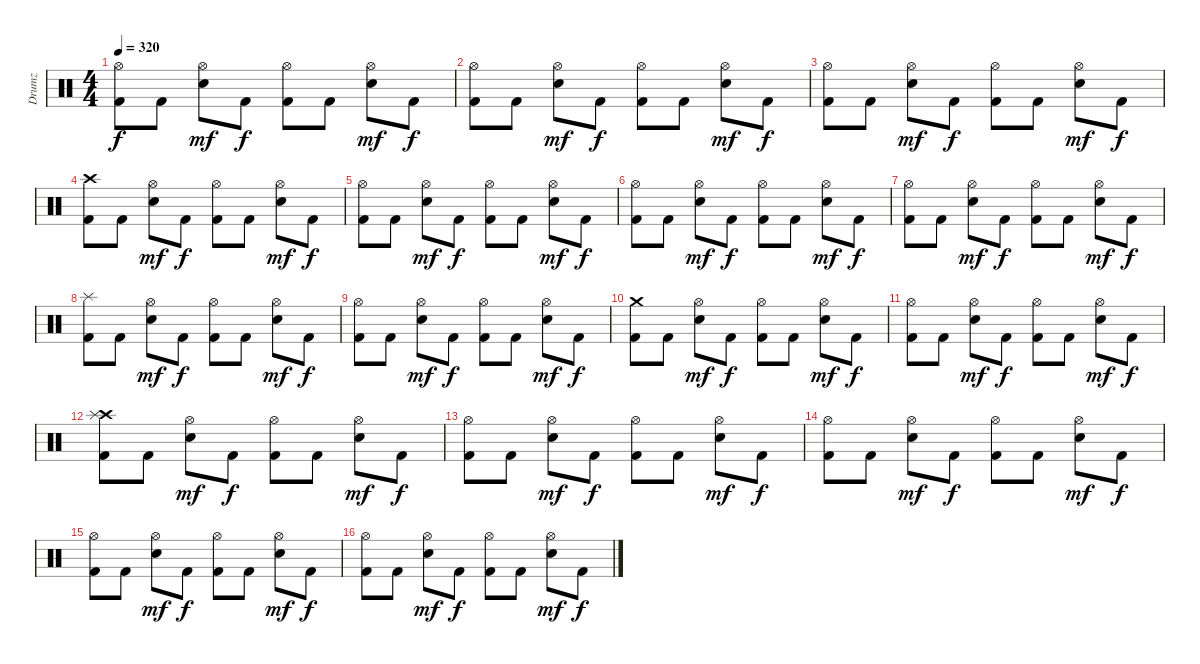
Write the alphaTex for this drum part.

\track ("Drumz" "Drumz") {instrument percussion}
\staff {score}
\articulation defaults
\ts (4 4)
\tempo 320
\clef neutral
\ks c
("Hi-Hat (open)" "Kick (hit) 2").8{dy f} "Kick (hit) 2".8 ("Snare (hit) 2" "Hi-Hat (open)").8{dy mf} "Kick (hit) 2".8{dy f} ("Kick (hit) 2" "Hi-Hat (open)").8 "Kick (hit) 2".8 ("Snare (hit) 2" "Hi-Hat (open)").8{dy mf} "Kick (hit) 2".8{dy f} |
("Hi-Hat (open)" "Kick (hit) 2").8 "Kick (hit) 2".8 ("Snare (hit) 2" "Hi-Hat (open)").8{dy mf} "Kick (hit) 2".8{dy f} ("Kick (hit) 2" "Hi-Hat (open)").8 "Kick (hit) 2".8 ("Snare (hit) 2" "Hi-Hat (open)").8{dy mf} "Kick (hit) 2".8{dy f} |
("Hi-Hat (open)" "Kick (hit) 2").8 "Kick (hit) 2".8 ("Snare (hit) 2" "Hi-Hat (open)").8{dy mf} "Kick (hit) 2".8{dy f} ("Kick (hit) 2" "Hi-Hat (open)").8 "Kick (hit) 2".8 ("Snare (hit) 2" "Hi-Hat (open)").8{dy mf} "Kick (hit) 2".8{dy f} |
("Crash high (hit)" "Kick (hit) 2").8 "Kick (hit) 2".8 ("Snare (hit) 2" "Hi-Hat (open)").8{dy mf} "Kick (hit) 2".8{dy f} ("Kick (hit) 2" "Hi-Hat (open)").8 "Kick (hit) 2".8 ("Snare (hit) 2" "Hi-Hat (open)").8{dy mf} "Kick (hit) 2".8{dy f} |
("Hi-Hat (open)" "Kick (hit) 2").8 "Kick (hit) 2".8 ("Snare (hit) 2" "Hi-Hat (open)").8{dy mf} "Kick (hit) 2".8{dy f} ("Kick (hit) 2" "Hi-Hat (open)").8 "Kick (hit) 2".8 ("Snare (hit) 2" "Hi-Hat (open)").8{dy mf} "Kick (hit) 2".8{dy f} |
("Hi-Hat (open)" "Kick (hit) 2").8 "Kick (hit) 2".8 ("Snare (hit) 2" "Hi-Hat (open)").8{dy mf} "Kick (hit) 2".8{dy f} ("Kick (hit) 2" "Hi-Hat (open)").8 "Kick (hit) 2".8 ("Snare (hit) 2" "Hi-Hat (open)").8{dy mf} "Kick (hit) 2".8{dy f} |
("Hi-Hat (open)" "Kick (hit) 2").8 "Kick (hit) 2".8 ("Snare (hit) 2" "Hi-Hat (open)").8{dy mf} "Kick (hit) 2".8{dy f} ("Kick (hit) 2" "Hi-Hat (open)").8 "Kick (hit) 2".8 ("Snare (hit) 2" "Hi-Hat (open)").8{dy mf} "Kick (hit) 2".8{dy f} |
("Splash (hit)" "Kick (hit) 2").8 "Kick (hit) 2".8 ("Snare (hit) 2" "Hi-Hat (open)").8{dy mf} "Kick (hit) 2".8{dy f} ("Kick (hit) 2" "Hi-Hat (open)").8 "Kick (hit) 2".8 ("Snare (hit) 2" "Hi-Hat (open)").8{dy mf} "Kick (hit) 2".8{dy f} |
("Hi-Hat (open)" "Kick (hit) 2").8 "Kick (hit) 2".8 ("Snare (hit) 2" "Hi-Hat (open)").8{dy mf} "Kick (hit) 2".8{dy f} ("Kick (hit) 2" "Hi-Hat (open)").8 "Kick (hit) 2".8 ("Snare (hit) 2" "Hi-Hat (open)").8{dy mf} "Kick (hit) 2".8{dy f} |
("Crash medium (hit)" "Kick (hit) 2").8 "Kick (hit) 2".8 ("Snare (hit) 2" "Hi-Hat (open)").8{dy mf} "Kick (hit) 2".8{dy f} ("Kick (hit) 2" "Hi-Hat (open)").8 "Kick (hit) 2".8 ("Snare (hit) 2" "Hi-Hat (open)").8{dy mf} "Kick (hit) 2".8{dy f} |
("Hi-Hat (open)" "Kick (hit) 2").8 "Kick (hit) 2".8 ("Snare (hit) 2" "Hi-Hat (open)").8{dy mf} "Kick (hit) 2".8{dy f} ("Kick (hit) 2" "Hi-Hat (open)").8 "Kick (hit) 2".8 ("Snare (hit) 2" "Hi-Hat (open)").8{dy mf} "Kick (hit) 2".8{dy f} |
("Crash high (hit)" "Splash (hit)" "Kick (hit) 2").8 "Kick (hit) 2".8 ("Snare (hit) 2" "Hi-Hat (open)").8{dy mf} "Kick (hit) 2".8{dy f} ("Kick (hit) 2" "Hi-Hat (open)").8 "Kick (hit) 2".8 ("Snare (hit) 2" "Hi-Hat (open)").8{dy mf} "Kick (hit) 2".8{dy f} |
("Hi-Hat (open)" "Kick (hit) 2").8 "Kick (hit) 2".8 ("Snare (hit) 2" "Hi-Hat (open)").8{dy mf} "Kick (hit) 2".8{dy f} ("Kick (hit) 2" "Hi-Hat (open)").8 "Kick (hit) 2".8 ("Snare (hit) 2" "Hi-Hat (open)").8{dy mf} "Kick (hit) 2".8{dy f} |
("Hi-Hat (open)" "Kick (hit) 2").8 "Kick (hit) 2".8 ("Snare (hit) 2" "Hi-Hat (open)").8{dy mf} "Kick (hit) 2".8{dy f} ("Kick (hit) 2" "Hi-Hat (open)").8 "Kick (hit) 2".8 ("Snare (hit) 2" "Hi-Hat (open)").8{dy mf} "Kick (hit) 2".8{dy f} |
("Hi-Hat (open)" "Kick (hit) 2").8 "Kick (hit) 2".8 ("Snare (hit) 2" "Hi-Hat (open)").8{dy mf} "Kick (hit) 2".8{dy f} ("Kick (hit) 2" "Hi-Hat (open)").8 "Kick (hit) 2".8 ("Snare (hit) 2" "Hi-Hat (open)").8{dy mf} "Kick (hit) 2".8{dy f} |
("Hi-Hat (open)" "Kick (hit) 2").8 "Kick (hit) 2".8 ("Snare (hit) 2" "Hi-Hat (open)").8{dy mf} "Kick (hit) 2".8{dy f} ("Kick (hit) 2" "Hi-Hat (open)").8 "Kick (hit) 2".8 ("Snare (hit) 2" "Hi-Hat (open)").8{dy mf} "Kick (hit) 2".8{dy f}
